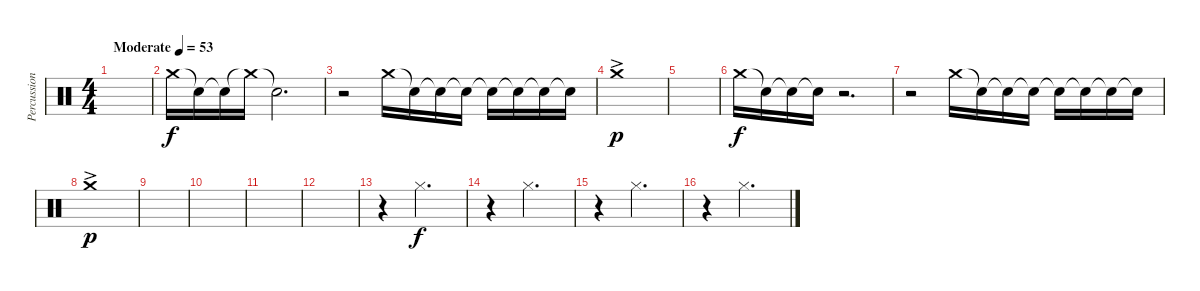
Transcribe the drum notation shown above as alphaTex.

\track ("Percussion" "Percussion") {instrument percussion}
\staff {score}
\articulation defaults
\ts (4 4)
\tempo (53 "Moderate")
\clef neutral
\ks c
|
"Crash medium (hit)".16 "Snare (hit)"{t}.16{volume 6} "Snare (hit)"{t}.16{volume 12} "Crash medium (hit)"{t}.16{volume 16} "Snare (hit)"{t}.2{d} |
r.2{volume 2} "Crash medium (hit)".16 "Snare (hit)"{t}.16 "Snare (hit)"{t}.16{volume 5} "Snare (hit)"{t}.16 "Snare (hit)"{t}.16{volume 9} "Snare (hit)"{t}.16 "Snare (hit)"{t}.16{volume 13} "Snare (hit)"{t}.16 |
"Crash medium (hit)"{ac}.1{dy p volume 16} |
|
"Crash medium (hit)".16{dy f} "Snare (hit)"{t}.16{volume 6} "Snare (hit)"{t}.16{volume 12} "Snare (hit)"{t}.16{volume 16} r.2{d} |
r.2{volume 2} "Crash medium (hit)".16 "Snare (hit)"{t}.16 "Snare (hit)"{t}.16{volume 5} "Snare (hit)"{t}.16 "Snare (hit)"{t}.16{volume 9} "Snare (hit)"{t}.16 "Snare (hit)"{t}.16{volume 13} "Snare (hit)"{t}.16 |
"Crash medium (hit)"{ac}.1{dy p volume 16} |
|
|
|
|
r.4 "Hi-Hat (closed)".2{d dy f} |
r.4 "Hi-Hat (closed)".2{d} |
r.4 "Hi-Hat (closed)".2{d} |
r.4 "Hi-Hat (closed)".2{d}
